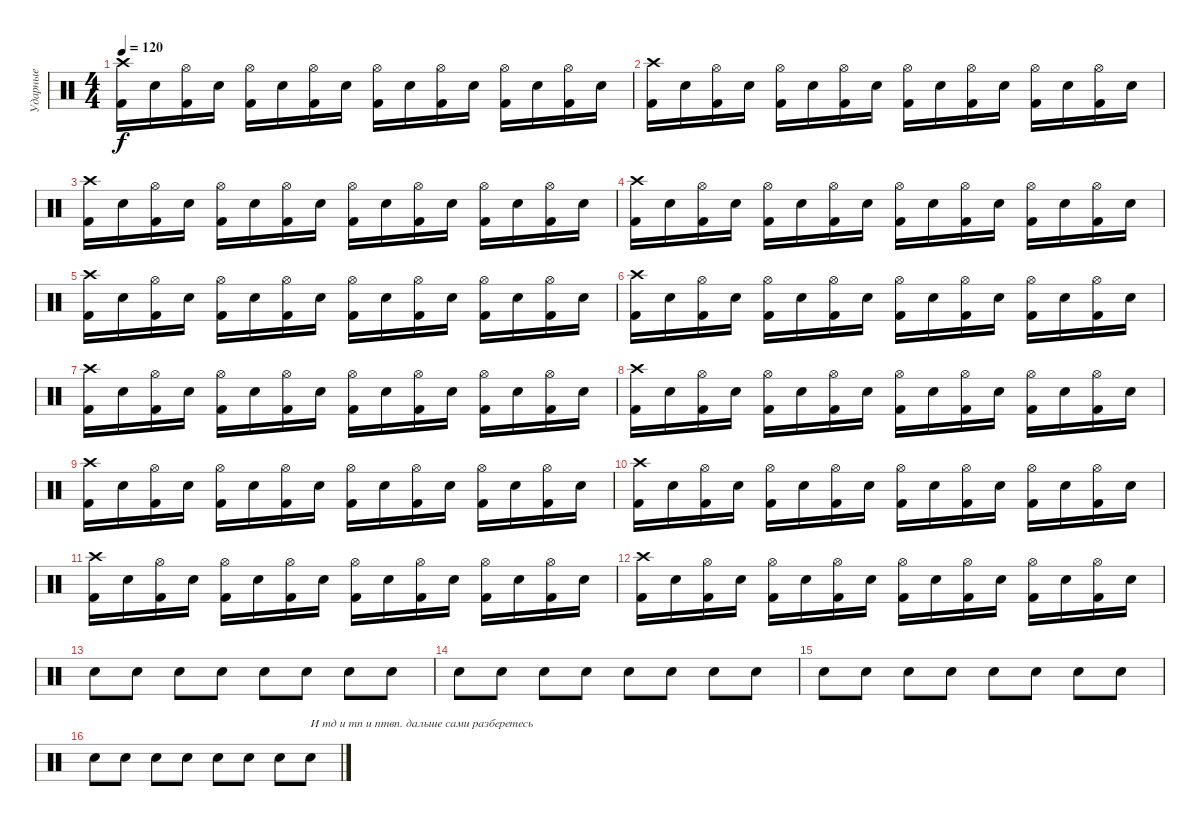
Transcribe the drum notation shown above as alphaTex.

\track ("Ударные" "Ударные") {instrument percussion}
\staff {score}
\articulation defaults
\ts (4 4)
\tempo 120
\clef neutral
\ks c
("Kick (hit) 2" "Crash high (hit)").16{dy f} "Electric Snare (hit)".16 ("Kick (hit) 2" "Hi-Hat (open)").16 "Electric Snare (hit)".16 ("Kick (hit) 2" "Hi-Hat (open)").16 "Electric Snare (hit)".16 ("Kick (hit) 2" "Hi-Hat (open)").16 "Electric Snare (hit)".16 ("Kick (hit) 2" "Hi-Hat (open)").16 "Electric Snare (hit)".16 ("Kick (hit) 2" "Hi-Hat (open)").16 "Electric Snare (hit)".16 ("Kick (hit) 2" "Hi-Hat (open)").16 "Electric Snare (hit)".16 ("Kick (hit) 2" "Hi-Hat (open)").16 "Electric Snare (hit)".16 |
("Kick (hit) 2" "Crash high (hit)").16 "Electric Snare (hit)".16 ("Kick (hit) 2" "Hi-Hat (open)").16 "Electric Snare (hit)".16 ("Kick (hit) 2" "Hi-Hat (open)").16 "Electric Snare (hit)".16 ("Kick (hit) 2" "Hi-Hat (open)").16 "Electric Snare (hit)".16 ("Kick (hit) 2" "Hi-Hat (open)").16 "Electric Snare (hit)".16 ("Kick (hit) 2" "Hi-Hat (open)").16 "Electric Snare (hit)".16 ("Kick (hit) 2" "Hi-Hat (open)").16 "Electric Snare (hit)".16 ("Kick (hit) 2" "Hi-Hat (open)").16 "Electric Snare (hit)".16 |
("Kick (hit) 2" "Crash high (hit)").16 "Electric Snare (hit)".16 ("Kick (hit) 2" "Hi-Hat (open)").16 "Electric Snare (hit)".16 ("Kick (hit) 2" "Hi-Hat (open)").16 "Electric Snare (hit)".16 ("Kick (hit) 2" "Hi-Hat (open)").16 "Electric Snare (hit)".16 ("Kick (hit) 2" "Hi-Hat (open)").16 "Electric Snare (hit)".16 ("Kick (hit) 2" "Hi-Hat (open)").16 "Electric Snare (hit)".16 ("Kick (hit) 2" "Hi-Hat (open)").16 "Electric Snare (hit)".16 ("Kick (hit) 2" "Hi-Hat (open)").16 "Electric Snare (hit)".16 |
("Kick (hit) 2" "Crash high (hit)").16 "Electric Snare (hit)".16 ("Kick (hit) 2" "Hi-Hat (open)").16 "Electric Snare (hit)".16 ("Kick (hit) 2" "Hi-Hat (open)").16 "Electric Snare (hit)".16 ("Kick (hit) 2" "Hi-Hat (open)").16 "Electric Snare (hit)".16 ("Kick (hit) 2" "Hi-Hat (open)").16 "Electric Snare (hit)".16 ("Kick (hit) 2" "Hi-Hat (open)").16 "Electric Snare (hit)".16 ("Kick (hit) 2" "Hi-Hat (open)").16 "Electric Snare (hit)".16 ("Kick (hit) 2" "Hi-Hat (open)").16 "Electric Snare (hit)".16 |
("Kick (hit) 2" "Crash high (hit)").16 "Electric Snare (hit)".16 ("Kick (hit) 2" "Hi-Hat (open)").16 "Electric Snare (hit)".16 ("Kick (hit) 2" "Hi-Hat (open)").16 "Electric Snare (hit)".16 ("Kick (hit) 2" "Hi-Hat (open)").16 "Electric Snare (hit)".16 ("Kick (hit) 2" "Hi-Hat (open)").16 "Electric Snare (hit)".16 ("Kick (hit) 2" "Hi-Hat (open)").16 "Electric Snare (hit)".16 ("Kick (hit) 2" "Hi-Hat (open)").16 "Electric Snare (hit)".16 ("Kick (hit) 2" "Hi-Hat (open)").16 "Electric Snare (hit)".16 |
("Kick (hit) 2" "Crash high (hit)").16 "Electric Snare (hit)".16 ("Kick (hit) 2" "Hi-Hat (open)").16 "Electric Snare (hit)".16 ("Kick (hit) 2" "Hi-Hat (open)").16 "Electric Snare (hit)".16 ("Kick (hit) 2" "Hi-Hat (open)").16 "Electric Snare (hit)".16 ("Kick (hit) 2" "Hi-Hat (open)").16 "Electric Snare (hit)".16 ("Kick (hit) 2" "Hi-Hat (open)").16 "Electric Snare (hit)".16 ("Kick (hit) 2" "Hi-Hat (open)").16 "Electric Snare (hit)".16 ("Kick (hit) 2" "Hi-Hat (open)").16 "Electric Snare (hit)".16 |
("Kick (hit) 2" "Crash high (hit)").16 "Electric Snare (hit)".16 ("Kick (hit) 2" "Hi-Hat (open)").16 "Electric Snare (hit)".16 ("Kick (hit) 2" "Hi-Hat (open)").16 "Electric Snare (hit)".16 ("Kick (hit) 2" "Hi-Hat (open)").16 "Electric Snare (hit)".16 ("Kick (hit) 2" "Hi-Hat (open)").16 "Electric Snare (hit)".16 ("Kick (hit) 2" "Hi-Hat (open)").16 "Electric Snare (hit)".16 ("Kick (hit) 2" "Hi-Hat (open)").16 "Electric Snare (hit)".16 ("Kick (hit) 2" "Hi-Hat (open)").16 "Electric Snare (hit)".16 |
("Kick (hit) 2" "Crash high (hit)").16 "Electric Snare (hit)".16 ("Kick (hit) 2" "Hi-Hat (open)").16 "Electric Snare (hit)".16 ("Kick (hit) 2" "Hi-Hat (open)").16 "Electric Snare (hit)".16 ("Kick (hit) 2" "Hi-Hat (open)").16 "Electric Snare (hit)".16 ("Kick (hit) 2" "Hi-Hat (open)").16 "Electric Snare (hit)".16 ("Kick (hit) 2" "Hi-Hat (open)").16 "Electric Snare (hit)".16 ("Kick (hit) 2" "Hi-Hat (open)").16 "Electric Snare (hit)".16 ("Kick (hit) 2" "Hi-Hat (open)").16 "Electric Snare (hit)".16 |
("Kick (hit) 2" "Crash high (hit)").16 "Electric Snare (hit)".16 ("Kick (hit) 2" "Hi-Hat (open)").16 "Electric Snare (hit)".16 ("Kick (hit) 2" "Hi-Hat (open)").16 "Electric Snare (hit)".16 ("Kick (hit) 2" "Hi-Hat (open)").16 "Electric Snare (hit)".16 ("Kick (hit) 2" "Hi-Hat (open)").16 "Electric Snare (hit)".16 ("Kick (hit) 2" "Hi-Hat (open)").16 "Electric Snare (hit)".16 ("Kick (hit) 2" "Hi-Hat (open)").16 "Electric Snare (hit)".16 ("Kick (hit) 2" "Hi-Hat (open)").16 "Electric Snare (hit)".16 |
("Kick (hit) 2" "Crash high (hit)").16 "Electric Snare (hit)".16 ("Kick (hit) 2" "Hi-Hat (open)").16 "Electric Snare (hit)".16 ("Kick (hit) 2" "Hi-Hat (open)").16 "Electric Snare (hit)".16 ("Kick (hit) 2" "Hi-Hat (open)").16 "Electric Snare (hit)".16 ("Kick (hit) 2" "Hi-Hat (open)").16 "Electric Snare (hit)".16 ("Kick (hit) 2" "Hi-Hat (open)").16 "Electric Snare (hit)".16 ("Kick (hit) 2" "Hi-Hat (open)").16 "Electric Snare (hit)".16 ("Kick (hit) 2" "Hi-Hat (open)").16 "Electric Snare (hit)".16 |
("Kick (hit) 2" "Crash high (hit)").16 "Electric Snare (hit)".16 ("Kick (hit) 2" "Hi-Hat (open)").16 "Electric Snare (hit)".16 ("Kick (hit) 2" "Hi-Hat (open)").16 "Electric Snare (hit)".16 ("Kick (hit) 2" "Hi-Hat (open)").16 "Electric Snare (hit)".16 ("Kick (hit) 2" "Hi-Hat (open)").16 "Electric Snare (hit)".16 ("Kick (hit) 2" "Hi-Hat (open)").16 "Electric Snare (hit)".16 ("Kick (hit) 2" "Hi-Hat (open)").16 "Electric Snare (hit)".16 ("Kick (hit) 2" "Hi-Hat (open)").16 "Electric Snare (hit)".16 |
("Kick (hit) 2" "Crash high (hit)").16 "Electric Snare (hit)".16 ("Kick (hit) 2" "Hi-Hat (open)").16 "Electric Snare (hit)".16 ("Kick (hit) 2" "Hi-Hat (open)").16 "Electric Snare (hit)".16 ("Kick (hit) 2" "Hi-Hat (open)").16 "Electric Snare (hit)".16 ("Kick (hit) 2" "Hi-Hat (open)").16 "Electric Snare (hit)".16 ("Kick (hit) 2" "Hi-Hat (open)").16 "Electric Snare (hit)".16 ("Kick (hit) 2" "Hi-Hat (open)").16 "Electric Snare (hit)".16 ("Kick (hit) 2" "Hi-Hat (open)").16 "Electric Snare (hit)".16 |
"Hand Clap (hit)".8 "Hand Clap (hit)".8 "Hand Clap (hit)".8 "Hand Clap (hit)".8 "Hand Clap (hit)".8 "Hand Clap (hit)".8 "Hand Clap (hit)".8 "Hand Clap (hit)".8 |
"Hand Clap (hit)".8 "Hand Clap (hit)".8 "Hand Clap (hit)".8 "Hand Clap (hit)".8 "Hand Clap (hit)".8 "Hand Clap (hit)".8 "Hand Clap (hit)".8 "Hand Clap (hit)".8 |
"Hand Clap (hit)".8 "Hand Clap (hit)".8 "Hand Clap (hit)".8 "Hand Clap (hit)".8 "Hand Clap (hit)".8 "Hand Clap (hit)".8 "Hand Clap (hit)".8 "Hand Clap (hit)".8 |
"Hand Clap (hit)".8 "Hand Clap (hit)".8 "Hand Clap (hit)".8 "Hand Clap (hit)".8 "Hand Clap (hit)".8 "Hand Clap (hit)".8 "Hand Clap (hit)".8 "Hand Clap (hit)".8{txt "И тд и тп и птвп. дальше сами разберетесь"}
